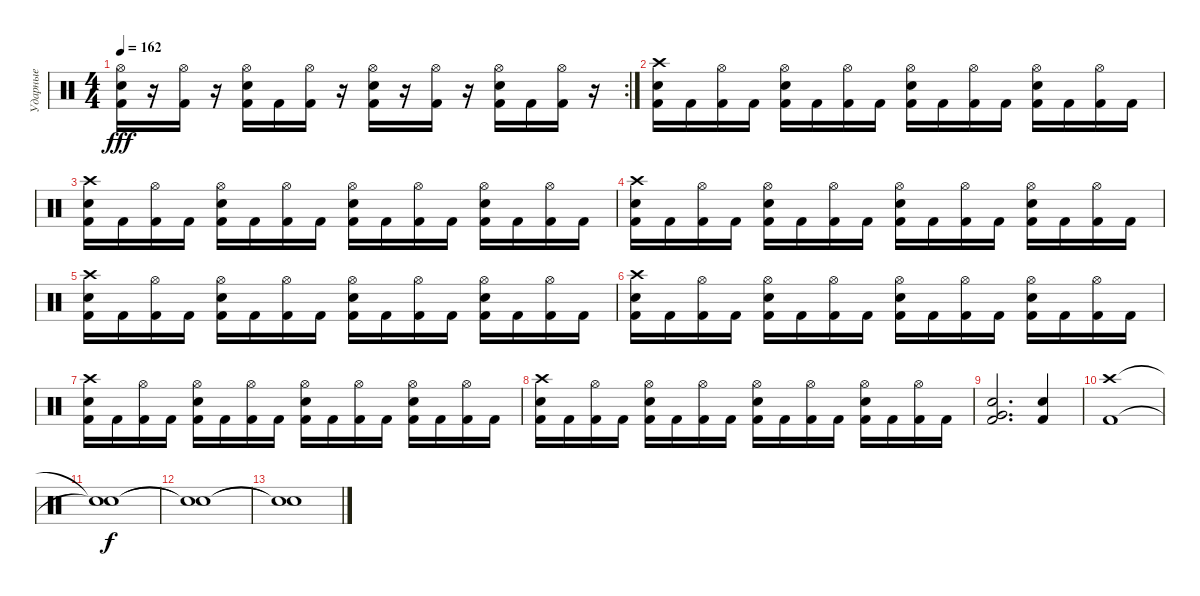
\track ("Ударные" "Ударные") {instrument percussion}
\staff {score}
\articulation defaults
\rc 2
\ts (4 4)
\tempo 162
\clef neutral
\ks c
("Hi-Hat (open)" "Electric Snare (hit)" "Kick (hit) 2").16{dy fff} r.16 ("Hi-Hat (open)" "Kick (hit) 2").16 r.16 ("Hi-Hat (open)" "Electric Snare (hit)" "Kick (hit) 2").16 "Kick (hit) 2".16 ("Hi-Hat (open)" "Kick (hit) 2").16 r.16 ("Hi-Hat (open)" "Electric Snare (hit)" "Kick (hit) 2").16 r.16 ("Hi-Hat (open)" "Kick (hit) 2").16 r.16 ("Hi-Hat (open)" "Electric Snare (hit)" "Kick (hit) 2").16 "Kick (hit) 2".16 ("Hi-Hat (open)" "Kick (hit) 2").16 r.16 |
("Crash high (hit)" "Electric Snare (hit)" "Kick (hit) 2").16 "Kick (hit) 2".16 ("Hi-Hat (open)" "Kick (hit) 2").16 "Kick (hit) 2".16 ("Hi-Hat (open)" "Electric Snare (hit)" "Kick (hit) 2").16 "Kick (hit) 2".16 ("Hi-Hat (open)" "Kick (hit) 2").16 "Kick (hit) 2".16 ("Hi-Hat (open)" "Electric Snare (hit)" "Kick (hit) 2").16 "Kick (hit) 2".16 ("Hi-Hat (open)" "Kick (hit) 2").16 "Kick (hit) 2".16 ("Hi-Hat (open)" "Electric Snare (hit)" "Kick (hit) 2").16 "Kick (hit) 2".16 ("Hi-Hat (open)" "Kick (hit) 2").16 "Kick (hit) 2".16 |
("Crash high (hit)" "Electric Snare (hit)" "Kick (hit) 2").16 "Kick (hit) 2".16 ("Hi-Hat (open)" "Kick (hit) 2").16 "Kick (hit) 2".16 ("Hi-Hat (open)" "Electric Snare (hit)" "Kick (hit) 2").16 "Kick (hit) 2".16 ("Hi-Hat (open)" "Kick (hit) 2").16 "Kick (hit) 2".16 ("Hi-Hat (open)" "Electric Snare (hit)" "Kick (hit) 2").16 "Kick (hit) 2".16 ("Hi-Hat (open)" "Kick (hit) 2").16 "Kick (hit) 2".16 ("Hi-Hat (open)" "Electric Snare (hit)" "Kick (hit) 2").16 "Kick (hit) 2".16 ("Hi-Hat (open)" "Kick (hit) 2").16 "Kick (hit) 2".16 |
("Crash high (hit)" "Electric Snare (hit)" "Kick (hit) 2").16 "Kick (hit) 2".16 ("Hi-Hat (open)" "Kick (hit) 2").16 "Kick (hit) 2".16 ("Hi-Hat (open)" "Electric Snare (hit)" "Kick (hit) 2").16 "Kick (hit) 2".16 ("Hi-Hat (open)" "Kick (hit) 2").16 "Kick (hit) 2".16 ("Hi-Hat (open)" "Electric Snare (hit)" "Kick (hit) 2").16 "Kick (hit) 2".16 ("Hi-Hat (open)" "Kick (hit) 2").16 "Kick (hit) 2".16 ("Hi-Hat (open)" "Electric Snare (hit)" "Kick (hit) 2").16 "Kick (hit) 2".16 ("Hi-Hat (open)" "Kick (hit) 2").16 "Kick (hit) 2".16 |
("Crash high (hit)" "Electric Snare (hit)" "Kick (hit) 2").16 "Kick (hit) 2".16 ("Hi-Hat (open)" "Kick (hit) 2").16 "Kick (hit) 2".16 ("Hi-Hat (open)" "Electric Snare (hit)" "Kick (hit) 2").16 "Kick (hit) 2".16 ("Hi-Hat (open)" "Kick (hit) 2").16 "Kick (hit) 2".16 ("Hi-Hat (open)" "Electric Snare (hit)" "Kick (hit) 2").16 "Kick (hit) 2".16 ("Hi-Hat (open)" "Kick (hit) 2").16 "Kick (hit) 2".16 ("Hi-Hat (open)" "Electric Snare (hit)" "Kick (hit) 2").16 "Kick (hit) 2".16 ("Hi-Hat (open)" "Kick (hit) 2").16 "Kick (hit) 2".16 |
("Crash high (hit)" "Electric Snare (hit)" "Kick (hit) 2").16 "Kick (hit) 2".16 ("Hi-Hat (open)" "Kick (hit) 2").16 "Kick (hit) 2".16 ("Hi-Hat (open)" "Electric Snare (hit)" "Kick (hit) 2").16 "Kick (hit) 2".16 ("Hi-Hat (open)" "Kick (hit) 2").16 "Kick (hit) 2".16 ("Hi-Hat (open)" "Electric Snare (hit)" "Kick (hit) 2").16 "Kick (hit) 2".16 ("Hi-Hat (open)" "Kick (hit) 2").16 "Kick (hit) 2".16 ("Hi-Hat (open)" "Electric Snare (hit)" "Kick (hit) 2").16 "Kick (hit) 2".16 ("Hi-Hat (open)" "Kick (hit) 2").16 "Kick (hit) 2".16 |
("Crash high (hit)" "Electric Snare (hit)" "Kick (hit) 2").16 "Kick (hit) 2".16 ("Hi-Hat (open)" "Kick (hit) 2").16 "Kick (hit) 2".16 ("Hi-Hat (open)" "Electric Snare (hit)" "Kick (hit) 2").16 "Kick (hit) 2".16 ("Hi-Hat (open)" "Kick (hit) 2").16 "Kick (hit) 2".16 ("Hi-Hat (open)" "Electric Snare (hit)" "Kick (hit) 2").16 "Kick (hit) 2".16 ("Hi-Hat (open)" "Kick (hit) 2").16 "Kick (hit) 2".16 ("Hi-Hat (open)" "Electric Snare (hit)" "Kick (hit) 2").16 "Kick (hit) 2".16 ("Hi-Hat (open)" "Kick (hit) 2").16 "Kick (hit) 2".16 |
("Crash high (hit)" "Electric Snare (hit)" "Kick (hit) 2").16 "Kick (hit) 2".16 ("Hi-Hat (open)" "Kick (hit) 2").16 "Kick (hit) 2".16 ("Hi-Hat (open)" "Electric Snare (hit)" "Kick (hit) 2").16 "Kick (hit) 2".16 ("Hi-Hat (open)" "Kick (hit) 2").16 "Kick (hit) 2".16 ("Hi-Hat (open)" "Electric Snare (hit)" "Kick (hit) 2").16 "Kick (hit) 2".16 ("Hi-Hat (open)" "Kick (hit) 2").16 "Kick (hit) 2".16 ("Hi-Hat (open)" "Electric Snare (hit)" "Kick (hit) 2").16 "Kick (hit) 2".16 ("Hi-Hat (open)" "Kick (hit) 2").16 "Kick (hit) 2".16 |
("Very Low Tom (hit)" "Electric Snare (hit)" "Kick (hit) 2").2{d} ("Electric Snare (hit)" "Kick (hit) 2").4 |
("Crash high (hit)" "Kick (hit) 2").1 |
("Snare (hit)"{t} "Snare (hit)"{t}).1{dy f} |
("Snare (hit)"{t} "Snare (hit)"{t}).1 |
("Snare (hit)"{t} "Snare (hit)"{t}).1
